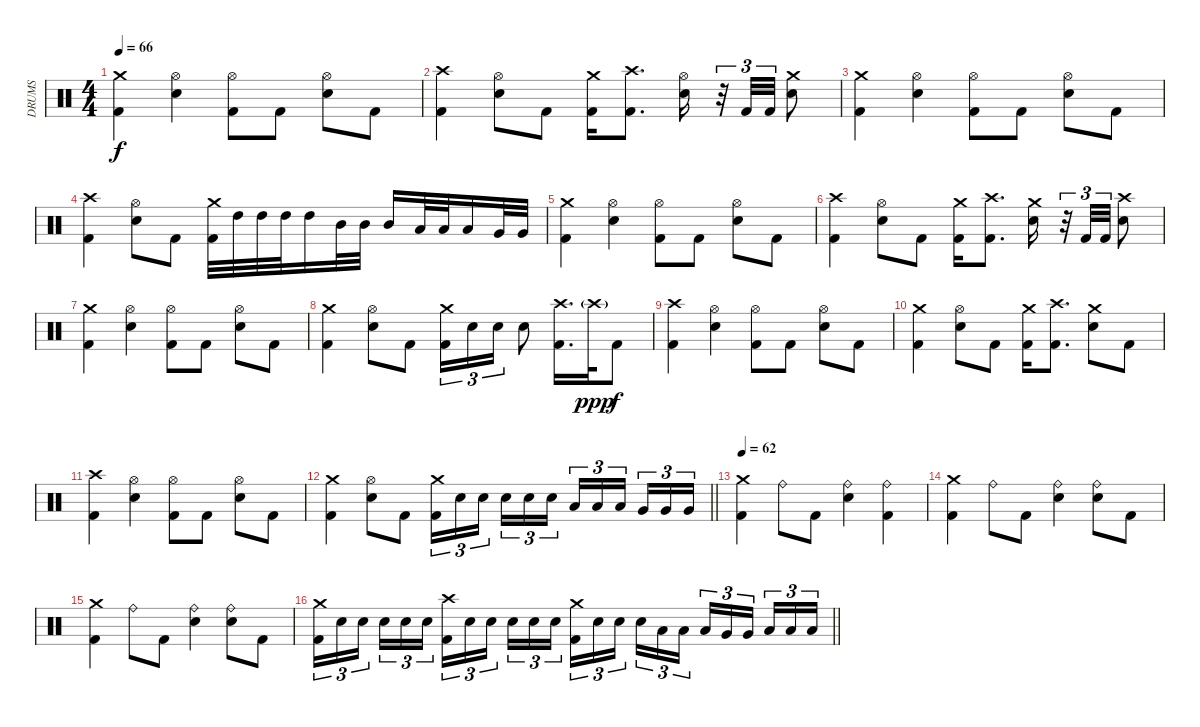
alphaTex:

\track ("DRUMS" "DRUMS") {instrument percussion}
\staff {score}
\articulation defaults
\ts (4 4)
\tempo 66
\clef neutral
\ks c
("Crash medium (hit)" "Kick (hit) 2").4{dy f} ("Hi-Hat (open)" "Snare (hit) 2").4 ("Hi-Hat (open)" "Kick (hit) 2").8 "Kick (hit) 2".8 ("Hi-Hat (open)" "Snare (hit) 2").8 "Kick (hit) 2".8 |
("Crash high (hit)" "Kick (hit) 2").4 ("Hi-Hat (open)" "Snare (hit) 2").8 "Kick (hit) 2".8 ("Crash medium (hit)" "Kick (hit) 2").16 ("Crash high (hit)" "Kick (hit) 2").8{d} ("Hi-Hat (open)" "Snare (hit) 2").16 r.32{tu (3 2)} "Kick (hit) 2".32{tu (3 2)} "Kick (hit) 2".32{tu (3 2)} ("Crash medium (hit)" "Snare (hit) 2").8 |
("Crash medium (hit)" "Kick (hit) 2").4 ("Hi-Hat (open)" "Snare (hit) 2").4 ("Hi-Hat (open)" "Kick (hit) 2").8 "Kick (hit) 2".8 ("Hi-Hat (open)" "Snare (hit) 2").8 "Kick (hit) 2".8 |
("Crash high (hit)" "Kick (hit) 2").4 ("Hi-Hat (open)" "Snare (hit) 2").8 "Kick (hit) 2".8 ("Crash medium (hit)" "Kick (hit) 2").32 "High Tom (hit)".32 "High Tom (hit)".32 "High Tom (hit)".32 "High Tom (hit)".16 "Mid Tom (hit)".32 "Mid Tom (hit)".32 "Mid Tom (hit)".16 "Low Tom (hit)".32 "Low Tom (hit)".32 "Low Tom (hit)".16 "Very Low Tom (hit)".32 "Very Low Tom (hit)".32 |
("Crash medium (hit)" "Kick (hit) 2").4 ("Hi-Hat (open)" "Snare (hit) 2").4 ("Hi-Hat (open)" "Kick (hit) 2").8 "Kick (hit) 2".8 ("Hi-Hat (open)" "Snare (hit) 2").8 "Kick (hit) 2".8 |
("Crash high (hit)" "Kick (hit) 2").4 ("Hi-Hat (open)" "Snare (hit) 2").8 "Kick (hit) 2".8 ("Crash medium (hit)" "Kick (hit) 2").16 ("Crash high (hit)" "Kick (hit) 2").8{d} ("Crash medium (hit)" "Snare (hit) 2").16 r.32{tu (3 2)} "Kick (hit) 2".32{tu (3 2)} "Kick (hit) 2".32{tu (3 2)} ("Crash high (hit)" "Snare (hit) 2").8 |
("Crash medium (hit)" "Kick (hit) 2").4 ("Hi-Hat (open)" "Snare (hit) 2").4 ("Hi-Hat (open)" "Kick (hit) 2").8 "Kick (hit) 2".8 ("Hi-Hat (open)" "Snare (hit) 2").8 "Kick (hit) 2".8 |
("Crash medium (hit)" "Kick (hit) 2").4 ("Hi-Hat (open)" "Snare (hit) 2").8 "Kick (hit) 2".8 ("Crash medium (hit)" "Kick (hit) 2").16{tu (3 2)} "Snare (hit) 2".16{tu (3 2)} "Snare (hit) 2".16{tu (3 2)} "Snare (hit) 2".8 ("Crash high (hit)" "Kick (hit) 2").16{d} "Crash high (hit)"{g}.32{dy ppp} "Kick (hit) 2".8{dy f} |
("Crash high (hit)" "Kick (hit) 2").4 ("Hi-Hat (open)" "Snare (hit) 2").4 ("Hi-Hat (open)" "Kick (hit) 2").8 "Kick (hit) 2".8 ("Hi-Hat (open)" "Snare (hit) 2").8 "Kick (hit) 2".8 |
("Crash medium (hit)" "Kick (hit) 2").4 ("Hi-Hat (open)" "Snare (hit) 2").8 "Kick (hit) 2".8 ("Crash medium (hit)" "Kick (hit) 2").16 ("Crash high (hit)" "Kick (hit) 2").8{d} ("Crash medium (hit)" "Snare (hit) 2").8 "Kick (hit) 2".8 |
("Crash high (hit)" "Kick (hit) 2").4 ("Hi-Hat (open)" "Snare (hit) 2").4 ("Hi-Hat (open)" "Kick (hit) 2").8 "Kick (hit) 2".8 ("Hi-Hat (open)" "Snare (hit) 2").8 "Kick (hit) 2".8 |
\barLineRight lightlight
("Crash medium (hit)" "Kick (hit) 2").4 ("Hi-Hat (open)" "Snare (hit) 2").8 "Kick (hit) 2".8 ("Crash medium (hit)" "Kick (hit) 2").16{tu (3 2)} "Snare (hit) 2".16{tu (3 2)} "Snare (hit) 2".16{tu (3 2) beam splitsecondary} "Snare (hit) 2".16{tu (3 2)} "Snare (hit) 2".16{tu (3 2)} "Snare (hit) 2".16{tu (3 2)} "Low Tom (hit)".16{tu (3 2)} "Low Tom (hit)".16{tu (3 2)} "Low Tom (hit)".16{tu (3 2) beam splitsecondary} "Very Low Tom (hit)".16{tu (3 2)} "Very Low Tom (hit)".16{tu (3 2)} "Very Low Tom (hit)".16{tu (3 2)} |
\tempo 62
("Crash medium (hit)" "Kick (hit) 2").4 "Ride (bell)".8 "Kick (hit) 2".8 ("Ride (bell)" "Snare (hit) 2").4 ("Ride (bell)" "Kick (hit) 2").4 |
("Crash medium (hit)" "Kick (hit) 2").4 "Ride (bell)".8 "Kick (hit) 2".8 ("Ride (bell)" "Snare (hit) 2").4 ("Ride (bell)" "Snare (hit) 2").8 "Kick (hit) 2".8 |
("Crash medium (hit)" "Kick (hit) 2").4 "Ride (bell)".8 "Kick (hit) 2".8 ("Ride (bell)" "Snare (hit) 2").4 ("Ride (bell)" "Snare (hit) 2").8 "Kick (hit) 2".8 |
\barLineRight lightlight
("Crash medium (hit)" "Kick (hit) 2").16{tu (3 2)} "Snare (hit) 2".16{tu (3 2)} "Snare (hit) 2".16{tu (3 2) beam splitsecondary} "Snare (hit) 2".16{tu (3 2)} "Snare (hit) 2".16{tu (3 2)} "Snare (hit) 2".16{tu (3 2)} ("Crash high (hit)" "Kick (hit) 2").16{tu (3 2)} "Snare (hit) 2".16{tu (3 2)} "Snare (hit) 2".16{tu (3 2) beam splitsecondary} "Snare (hit) 2".16{tu (3 2)} "Snare (hit) 2".16{tu (3 2)} "Snare (hit) 2".16{tu (3 2)} ("Crash medium (hit)" "Kick (hit) 2").16{tu (3 2)} "Snare (hit) 2".16{tu (3 2)} "Snare (hit) 2".16{tu (3 2) beam splitsecondary} "Snare (hit) 2".16{tu (3 2)} "Low Tom (hit)".16{tu (3 2)} "Low Tom (hit)".16{tu (3 2)} "Low Tom (hit)".16{tu (3 2)} "Very Low Tom (hit)".16{tu (3 2)} "Very Low Tom (hit)".16{tu (3 2) beam splitsecondary} "Low Floor Tom (hit)".16{tu (3 2)} "Low Floor Tom (hit)".16{tu (3 2)} "Low Floor Tom (hit)".16{tu (3 2)}
